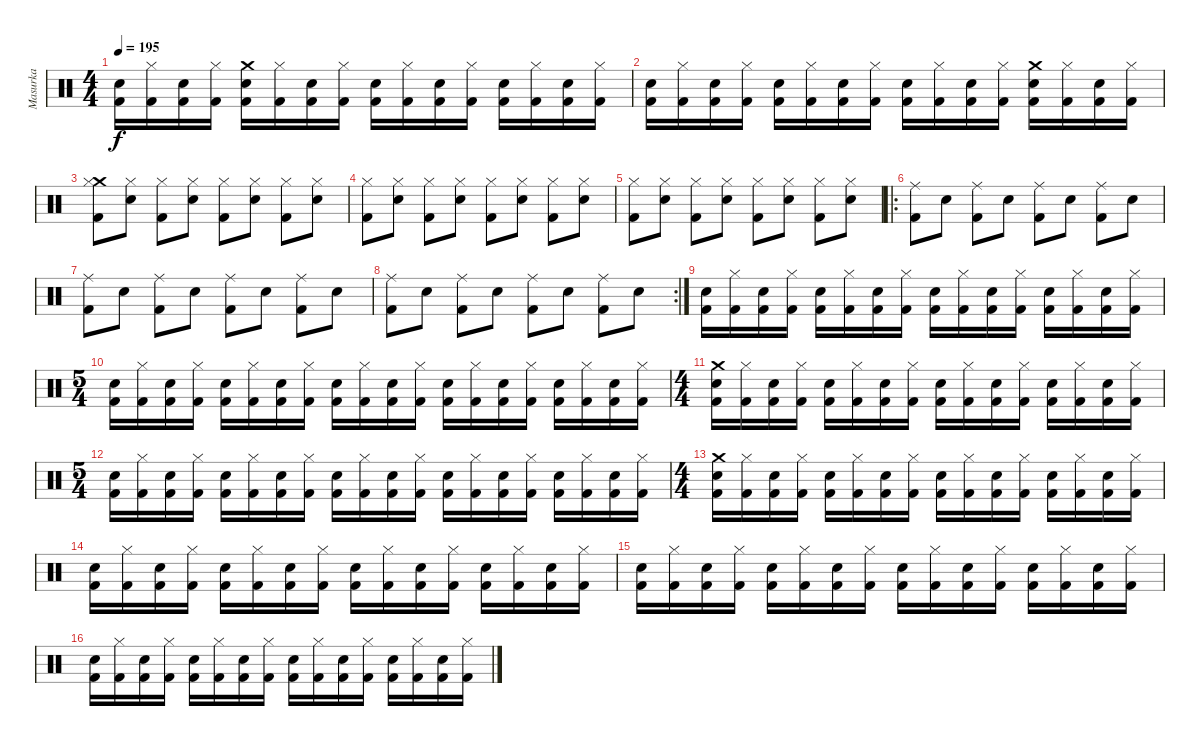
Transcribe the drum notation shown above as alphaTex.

\track ("Masurka" "Masurka") {instrument percussion}
\staff {score}
\articulation defaults
\ts (4 4)
\tempo 195
\clef neutral
\ks c
("Kick (hit) 2" "Snare (hit) 2").16{dy f} ("Hi-Hat (closed)" "Kick (hit) 2").16 ("Kick (hit) 2" "Snare (hit) 2").16 ("Hi-Hat (closed)" "Kick (hit) 2").16 ("Crash medium (hit)" "Kick (hit) 2" "Snare (hit) 2").16 ("Hi-Hat (closed)" "Kick (hit) 2").16 ("Kick (hit) 2" "Snare (hit) 2").16 ("Hi-Hat (closed)" "Kick (hit) 2").16 ("Kick (hit) 2" "Snare (hit) 2").16 ("Hi-Hat (closed)" "Kick (hit) 2").16 ("Kick (hit) 2" "Snare (hit) 2").16 ("Hi-Hat (closed)" "Kick (hit) 2").16 ("Kick (hit) 2" "Snare (hit) 2").16 ("Hi-Hat (closed)" "Kick (hit) 2").16 ("Kick (hit) 2" "Snare (hit) 2").16 ("Hi-Hat (closed)" "Kick (hit) 2").16 |
("Kick (hit) 2" "Snare (hit) 2").16 ("Hi-Hat (closed)" "Kick (hit) 2").16 ("Kick (hit) 2" "Snare (hit) 2").16 ("Hi-Hat (closed)" "Kick (hit) 2").16 ("Kick (hit) 2" "Snare (hit) 2").16 ("Hi-Hat (closed)" "Kick (hit) 2").16 ("Kick (hit) 2" "Snare (hit) 2").16 ("Hi-Hat (closed)" "Kick (hit) 2").16 ("Kick (hit) 2" "Snare (hit) 2").16 ("Hi-Hat (closed)" "Kick (hit) 2").16 ("Kick (hit) 2" "Snare (hit) 2").16 ("Hi-Hat (closed)" "Kick (hit) 2").16 ("Crash medium (hit)" "Kick (hit) 2" "Snare (hit) 2").16 ("Hi-Hat (closed)" "Kick (hit) 2").16 ("Kick (hit) 2" "Snare (hit) 2").16 ("Hi-Hat (closed)" "Kick (hit) 2").16 |
("Crash medium (hit)" "Hi-Hat (closed)" "Kick (hit) 2").8 ("Hi-Hat (closed)" "Snare (hit) 2").8 ("Hi-Hat (closed)" "Kick (hit) 2").8 ("Hi-Hat (closed)" "Snare (hit) 2").8 ("Hi-Hat (closed)" "Kick (hit) 2").8 ("Hi-Hat (closed)" "Snare (hit) 2").8 ("Hi-Hat (closed)" "Kick (hit) 2").8 ("Hi-Hat (closed)" "Snare (hit) 2").8 |
("Hi-Hat (closed)" "Kick (hit) 2").8 ("Hi-Hat (closed)" "Snare (hit) 2").8 ("Hi-Hat (closed)" "Kick (hit) 2").8 ("Hi-Hat (closed)" "Snare (hit) 2").8 ("Hi-Hat (closed)" "Kick (hit) 2").8 ("Hi-Hat (closed)" "Snare (hit) 2").8 ("Hi-Hat (closed)" "Kick (hit) 2").8 ("Hi-Hat (closed)" "Snare (hit) 2").8 |
("Hi-Hat (closed)" "Kick (hit) 2").8 ("Hi-Hat (closed)" "Snare (hit) 2").8 ("Hi-Hat (closed)" "Kick (hit) 2").8 ("Hi-Hat (closed)" "Snare (hit) 2").8 ("Hi-Hat (closed)" "Kick (hit) 2").8 ("Hi-Hat (closed)" "Snare (hit) 2").8 ("Hi-Hat (closed)" "Kick (hit) 2").8 ("Hi-Hat (closed)" "Snare (hit) 2").8 |
\ro
("Ride (middle)" "Kick (hit) 2").8 "Snare (hit) 2".8 ("Ride (middle)" "Kick (hit) 2").8 "Snare (hit) 2".8 ("Ride (middle)" "Kick (hit) 2").8 "Snare (hit) 2".8 ("Ride (middle)" "Kick (hit) 2").8 "Snare (hit) 2".8 |
("Ride (middle)" "Kick (hit) 2").8 "Snare (hit) 2".8 ("Ride (middle)" "Kick (hit) 2").8 "Snare (hit) 2".8 ("Ride (middle)" "Kick (hit) 2").8 "Snare (hit) 2".8 ("Ride (middle)" "Kick (hit) 2").8 "Snare (hit) 2".8 |
\rc 2
("Ride (middle)" "Kick (hit) 2").8 "Snare (hit) 2".8 ("Ride (middle)" "Kick (hit) 2").8 "Snare (hit) 2".8 ("Ride (middle)" "Kick (hit) 2").8 "Snare (hit) 2".8 ("Ride (middle)" "Kick (hit) 2").8 "Snare (hit) 2".8 |
("Kick (hit) 2" "Snare (hit) 2").16 ("Hi-Hat (closed)" "Kick (hit) 2").16 ("Kick (hit) 2" "Snare (hit) 2").16 ("Hi-Hat (closed)" "Kick (hit) 2").16 ("Kick (hit) 2" "Snare (hit) 2").16 ("Hi-Hat (closed)" "Kick (hit) 2").16 ("Kick (hit) 2" "Snare (hit) 2").16 ("Hi-Hat (closed)" "Kick (hit) 2").16 ("Kick (hit) 2" "Snare (hit) 2").16 ("Hi-Hat (closed)" "Kick (hit) 2").16 ("Kick (hit) 2" "Snare (hit) 2").16 ("Hi-Hat (closed)" "Kick (hit) 2").16 ("Kick (hit) 2" "Snare (hit) 2").16 ("Hi-Hat (closed)" "Kick (hit) 2").16 ("Kick (hit) 2" "Snare (hit) 2").16 ("Hi-Hat (closed)" "Kick (hit) 2").16 |
\ts (5 4)
("Kick (hit) 2" "Snare (hit) 2").16 ("Hi-Hat (closed)" "Kick (hit) 2").16 ("Kick (hit) 2" "Snare (hit) 2").16 ("Hi-Hat (closed)" "Kick (hit) 2").16 ("Kick (hit) 2" "Snare (hit) 2").16 ("Hi-Hat (closed)" "Kick (hit) 2").16 ("Kick (hit) 2" "Snare (hit) 2").16 ("Hi-Hat (closed)" "Kick (hit) 2").16 ("Kick (hit) 2" "Snare (hit) 2").16 ("Hi-Hat (closed)" "Kick (hit) 2").16 ("Kick (hit) 2" "Snare (hit) 2").16 ("Hi-Hat (closed)" "Kick (hit) 2").16 ("Kick (hit) 2" "Snare (hit) 2").16 ("Hi-Hat (closed)" "Kick (hit) 2").16 ("Kick (hit) 2" "Snare (hit) 2").16 ("Hi-Hat (closed)" "Kick (hit) 2").16 ("Kick (hit) 2" "Snare (hit) 2").16 ("Hi-Hat (closed)" "Kick (hit) 2").16 ("Kick (hit) 2" "Snare (hit) 2").16 ("Hi-Hat (closed)" "Kick (hit) 2").16 |
\ts (4 4)
("Crash medium (hit)" "Kick (hit) 2" "Snare (hit) 2").16 ("Hi-Hat (closed)" "Kick (hit) 2").16 ("Kick (hit) 2" "Snare (hit) 2").16 ("Hi-Hat (closed)" "Kick (hit) 2").16 ("Kick (hit) 2" "Snare (hit) 2").16 ("Hi-Hat (closed)" "Kick (hit) 2").16 ("Kick (hit) 2" "Snare (hit) 2").16 ("Hi-Hat (closed)" "Kick (hit) 2").16 ("Kick (hit) 2" "Snare (hit) 2").16 ("Hi-Hat (closed)" "Kick (hit) 2").16 ("Kick (hit) 2" "Snare (hit) 2").16 ("Hi-Hat (closed)" "Kick (hit) 2").16 ("Kick (hit) 2" "Snare (hit) 2").16 ("Hi-Hat (closed)" "Kick (hit) 2").16 ("Kick (hit) 2" "Snare (hit) 2").16 ("Hi-Hat (closed)" "Kick (hit) 2").16 |
\ts (5 4)
("Kick (hit) 2" "Snare (hit) 2").16 ("Hi-Hat (closed)" "Kick (hit) 2").16 ("Kick (hit) 2" "Snare (hit) 2").16 ("Hi-Hat (closed)" "Kick (hit) 2").16 ("Kick (hit) 2" "Snare (hit) 2").16 ("Hi-Hat (closed)" "Kick (hit) 2").16 ("Kick (hit) 2" "Snare (hit) 2").16 ("Hi-Hat (closed)" "Kick (hit) 2").16 ("Kick (hit) 2" "Snare (hit) 2").16 ("Hi-Hat (closed)" "Kick (hit) 2").16 ("Kick (hit) 2" "Snare (hit) 2").16 ("Hi-Hat (closed)" "Kick (hit) 2").16 ("Kick (hit) 2" "Snare (hit) 2").16 ("Hi-Hat (closed)" "Kick (hit) 2").16 ("Kick (hit) 2" "Snare (hit) 2").16 ("Hi-Hat (closed)" "Kick (hit) 2").16 ("Kick (hit) 2" "Snare (hit) 2").16 ("Hi-Hat (closed)" "Kick (hit) 2").16 ("Kick (hit) 2" "Snare (hit) 2").16 ("Hi-Hat (closed)" "Kick (hit) 2").16 |
\ts (4 4)
("Crash medium (hit)" "Kick (hit) 2" "Snare (hit) 2").16 ("Hi-Hat (closed)" "Kick (hit) 2").16 ("Kick (hit) 2" "Snare (hit) 2").16 ("Hi-Hat (closed)" "Kick (hit) 2").16 ("Kick (hit) 2" "Snare (hit) 2").16 ("Hi-Hat (closed)" "Kick (hit) 2").16 ("Kick (hit) 2" "Snare (hit) 2").16 ("Hi-Hat (closed)" "Kick (hit) 2").16 ("Kick (hit) 2" "Snare (hit) 2").16 ("Hi-Hat (closed)" "Kick (hit) 2").16 ("Kick (hit) 2" "Snare (hit) 2").16 ("Hi-Hat (closed)" "Kick (hit) 2").16 ("Kick (hit) 2" "Snare (hit) 2").16 ("Hi-Hat (closed)" "Kick (hit) 2").16 ("Kick (hit) 2" "Snare (hit) 2").16 ("Hi-Hat (closed)" "Kick (hit) 2").16 |
("Kick (hit) 2" "Snare (hit) 2").16 ("Hi-Hat (closed)" "Kick (hit) 2").16 ("Kick (hit) 2" "Snare (hit) 2").16 ("Hi-Hat (closed)" "Kick (hit) 2").16 ("Kick (hit) 2" "Snare (hit) 2").16 ("Hi-Hat (closed)" "Kick (hit) 2").16 ("Kick (hit) 2" "Snare (hit) 2").16 ("Hi-Hat (closed)" "Kick (hit) 2").16 ("Kick (hit) 2" "Snare (hit) 2").16 ("Hi-Hat (closed)" "Kick (hit) 2").16 ("Kick (hit) 2" "Snare (hit) 2").16 ("Hi-Hat (closed)" "Kick (hit) 2").16 ("Kick (hit) 2" "Snare (hit) 2").16 ("Hi-Hat (closed)" "Kick (hit) 2").16 ("Kick (hit) 2" "Snare (hit) 2").16 ("Hi-Hat (closed)" "Kick (hit) 2").16 |
("Kick (hit) 2" "Snare (hit) 2").16 ("Hi-Hat (closed)" "Kick (hit) 2").16 ("Kick (hit) 2" "Snare (hit) 2").16 ("Hi-Hat (closed)" "Kick (hit) 2").16 ("Kick (hit) 2" "Snare (hit) 2").16 ("Hi-Hat (closed)" "Kick (hit) 2").16 ("Kick (hit) 2" "Snare (hit) 2").16 ("Hi-Hat (closed)" "Kick (hit) 2").16 ("Kick (hit) 2" "Snare (hit) 2").16 ("Hi-Hat (closed)" "Kick (hit) 2").16 ("Kick (hit) 2" "Snare (hit) 2").16 ("Hi-Hat (closed)" "Kick (hit) 2").16 ("Kick (hit) 2" "Snare (hit) 2").16 ("Hi-Hat (closed)" "Kick (hit) 2").16 ("Kick (hit) 2" "Snare (hit) 2").16 ("Hi-Hat (closed)" "Kick (hit) 2").16 |
("Kick (hit) 2" "Snare (hit) 2").16 ("Hi-Hat (closed)" "Kick (hit) 2").16 ("Kick (hit) 2" "Snare (hit) 2").16 ("Hi-Hat (closed)" "Kick (hit) 2").16 ("Kick (hit) 2" "Snare (hit) 2").16 ("Hi-Hat (closed)" "Kick (hit) 2").16 ("Kick (hit) 2" "Snare (hit) 2").16 ("Hi-Hat (closed)" "Kick (hit) 2").16 ("Kick (hit) 2" "Snare (hit) 2").16 ("Hi-Hat (closed)" "Kick (hit) 2").16 ("Kick (hit) 2" "Snare (hit) 2").16 ("Hi-Hat (closed)" "Kick (hit) 2").16 ("Kick (hit) 2" "Snare (hit) 2").16 ("Hi-Hat (closed)" "Kick (hit) 2").16 ("Kick (hit) 2" "Snare (hit) 2").16 ("Hi-Hat (closed)" "Kick (hit) 2").16
